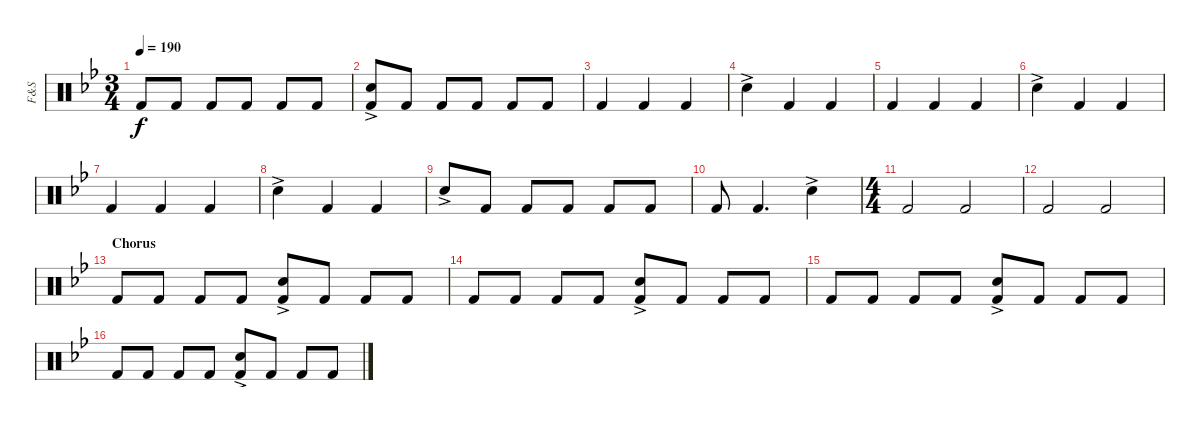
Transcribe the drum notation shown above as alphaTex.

\track ("F&S" "F&S") {instrument percussion}
\staff {score}
\articulation defaults
\ts (3 4)
\tempo 190
\clef neutral
\ks bb "Kick (hit) 2".8{dy f} "Kick (hit) 2".8 "Kick (hit) 2".8 "Kick (hit) 2".8 "Kick (hit) 2".8 "Kick (hit) 2".8
|
("Kick (hit) 2" "Snare (hit) 2"{ac}).8 "Kick (hit) 2".8 "Kick (hit) 2".8 "Kick (hit) 2".8 "Kick (hit) 2".8 "Kick (hit) 2".8 |
"Kick (hit) 2".4 "Kick (hit) 2".4 "Kick (hit) 2".4 |
"Snare (hit) 2"{ac}.4 "Kick (hit) 2".4 "Kick (hit) 2".4 |
"Kick (hit) 2".4 "Kick (hit) 2".4 "Kick (hit) 2".4 |
"Snare (hit) 2"{ac}.4 "Kick (hit) 2".4 "Kick (hit) 2".4 |
"Kick (hit) 2".4 "Kick (hit) 2".4 "Kick (hit) 2".4 |
"Snare (hit) 2"{ac}.4 "Kick (hit) 2".4 "Kick (hit) 2".4 |
"Snare (hit) 2"{ac}.8 "Kick (hit) 2".8 "Kick (hit) 2".8 "Kick (hit) 2".8 "Kick (hit) 2".8 "Kick (hit) 2".8 |
"Kick (hit) 2".8 "Kick (hit) 2".4{d} "Snare (hit) 2"{ac}.4 |
\ts (4 4)
"Kick (hit) 2".2 "Kick (hit) 2".2 |
"Kick (hit) 2".2 "Kick (hit) 2".2 |
\section ("" "Chorus")
"Kick (hit) 2".8 "Kick (hit) 2".8 "Kick (hit) 2".8 "Kick (hit) 2".8 ("Kick (hit) 2" "Snare (hit) 2"{ac}).8 "Kick (hit) 2".8 "Kick (hit) 2".8 "Kick (hit) 2".8 |
"Kick (hit) 2".8 "Kick (hit) 2".8 "Kick (hit) 2".8 "Kick (hit) 2".8 ("Kick (hit) 2" "Snare (hit) 2"{ac}).8 "Kick (hit) 2".8 "Kick (hit) 2".8 "Kick (hit) 2".8 |
"Kick (hit) 2".8 "Kick (hit) 2".8 "Kick (hit) 2".8 "Kick (hit) 2".8 ("Kick (hit) 2" "Snare (hit) 2"{ac}).8 "Kick (hit) 2".8 "Kick (hit) 2".8 "Kick (hit) 2".8 |
"Kick (hit) 2".8 "Kick (hit) 2".8 "Kick (hit) 2".8 "Kick (hit) 2".8 ("Kick (hit) 2" "Snare (hit) 2"{ac}).8 "Kick (hit) 2".8 "Kick (hit) 2".8 "Kick (hit) 2".8
